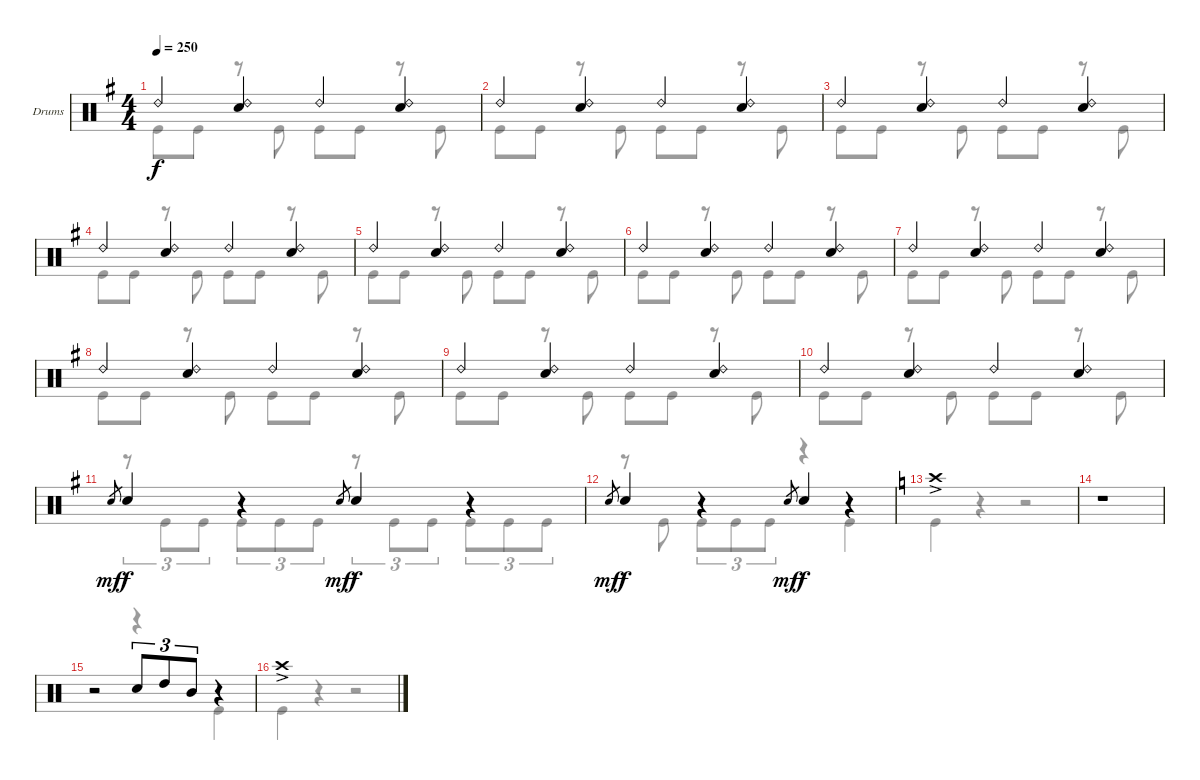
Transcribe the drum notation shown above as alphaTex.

\bracketExtendMode groupsimilarinstruments
\firstSystemTrackNameOrientation horizontal
\otherSystemsTrackNameOrientation horizontal
\track ("Drumkit" "Drums") {instrument percussion}
\staff {score}
\articulation defaults
\voice
\ts (4 4)
\tempo 250
\clef neutral
\ks g "Ride (bell) 2".4{dy f}
("Ride (bell) 2" "Snare (hit) 2").4 "Ride (bell) 2".4 ("Ride (bell) 2" "Snare (hit) 2").4 |
"Ride (bell) 2".4 ("Ride (bell) 2" "Snare (hit) 2").4 "Ride (bell) 2".4 ("Ride (bell) 2" "Snare (hit) 2").4 |
"Ride (bell) 2".4 ("Ride (bell) 2" "Snare (hit) 2").4 "Ride (bell) 2".4 ("Ride (bell) 2" "Snare (hit) 2").4 |
"Ride (bell) 2".4 ("Ride (bell) 2" "Snare (hit) 2").4 "Ride (bell) 2".4 ("Ride (bell) 2" "Snare (hit) 2").4 |
"Ride (bell) 2".4 ("Ride (bell) 2" "Snare (hit) 2").4 "Ride (bell) 2".4 ("Ride (bell) 2" "Snare (hit) 2").4 |
"Ride (bell) 2".4 ("Ride (bell) 2" "Snare (hit) 2").4 "Ride (bell) 2".4 ("Ride (bell) 2" "Snare (hit) 2").4 |
"Ride (bell) 2".4 ("Ride (bell) 2" "Snare (hit) 2").4 "Ride (bell) 2".4 ("Ride (bell) 2" "Snare (hit) 2").4 |
"Ride (bell) 2".4 ("Ride (bell) 2" "Snare (hit) 2").4 "Ride (bell) 2".4 ("Ride (bell) 2" "Snare (hit) 2").4 |
"Ride (bell) 2".4 ("Ride (bell) 2" "Snare (hit) 2").4 "Ride (bell) 2".4 ("Ride (bell) 2" "Snare (hit) 2").4 |
"Ride (bell) 2".4 ("Ride (bell) 2" "Snare (hit) 2").4 "Ride (bell) 2".4 ("Ride (bell) 2" "Snare (hit) 2").4 |
"Snare (hit) 2".8{gr dy mf} "Snare (hit) 2".4{dy f} r.4 "Snare (hit) 2".8{gr dy mf} "Snare (hit) 2".4{dy f} r.4 |
"Snare (hit) 2".8{gr dy mf} "Snare (hit) 2".4{dy f} r.4 "Snare (hit) 2".8{gr dy mf} "Snare (hit) 2".4{dy f} r.4 |
\ks c "Crash high (hit)"{ac}.1
|
r.1 |
r.2 "Snare (hit) 2".8{tu (3 2)} "High Tom (hit)".8{tu (3 2)} "Mid Tom (hit)".8{tu (3 2)} r.4 |
"Crash high (hit)"{ac}.1
\voice
\clef neutral
\ottava regular
\simile none
\ks g "Kick (hit)".8{dy f} "Kick (hit)".8
r.8 "Kick (hit)".8 "Kick (hit)".8 "Kick (hit)".8 r.8 "Kick (hit)".8 |
"Kick (hit)".8 "Kick (hit)".8 r.8 "Kick (hit)".8 "Kick (hit)".8 "Kick (hit)".8 r.8 "Kick (hit)".8 |
"Kick (hit)".8 "Kick (hit)".8 r.8 "Kick (hit)".8 "Kick (hit)".8 "Kick (hit)".8 r.8 "Kick (hit)".8 |
"Kick (hit)".8 "Kick (hit)".8 r.8 "Kick (hit)".8 "Kick (hit)".8 "Kick (hit)".8 r.8 "Kick (hit)".8 |
"Kick (hit)".8 "Kick (hit)".8 r.8 "Kick (hit)".8 "Kick (hit)".8 "Kick (hit)".8 r.8 "Kick (hit)".8 |
"Kick (hit)".8 "Kick (hit)".8 r.8 "Kick (hit)".8 "Kick (hit)".8 "Kick (hit)".8 r.8 "Kick (hit)".8 |
"Kick (hit)".8 "Kick (hit)".8 r.8 "Kick (hit)".8 "Kick (hit)".8 "Kick (hit)".8 r.8 "Kick (hit)".8 |
"Kick (hit)".8 "Kick (hit)".8 r.8 "Kick (hit)".8 "Kick (hit)".8 "Kick (hit)".8 r.8 "Kick (hit)".8 |
"Kick (hit)".8 "Kick (hit)".8 r.8 "Kick (hit)".8 "Kick (hit)".8 "Kick (hit)".8 r.8 "Kick (hit)".8 |
"Kick (hit)".8 "Kick (hit)".8 r.8 "Kick (hit)".8 "Kick (hit)".8 "Kick (hit)".8 r.8 "Kick (hit)".8 |
r.8{tu (3 2)} "Kick (hit)".8{tu (3 2)} "Kick (hit)".8{tu (3 2)} "Kick (hit)".8{tu (3 2)} "Kick (hit)".8{tu (3 2)} "Kick (hit)".8{tu (3 2)} r.8{tu (3 2)} "Kick (hit)".8{tu (3 2)} "Kick (hit)".8{tu (3 2)} "Kick (hit)".8{tu (3 2)} "Kick (hit)".8{tu (3 2)} "Kick (hit)".8{tu (3 2)} |
r.8 "Kick (hit)".8 "Kick (hit)".8{tu (3 2)} "Kick (hit)".8{tu (3 2)} "Kick (hit)".8{tu (3 2)} r.4 "Kick (hit)".4 |
\ks c "Kick (hit)".4
r.4 r.2 |
r.1 |
r.2 r.4 "Kick (hit)".4 |
"Kick (hit)".4 r.4 r.2
